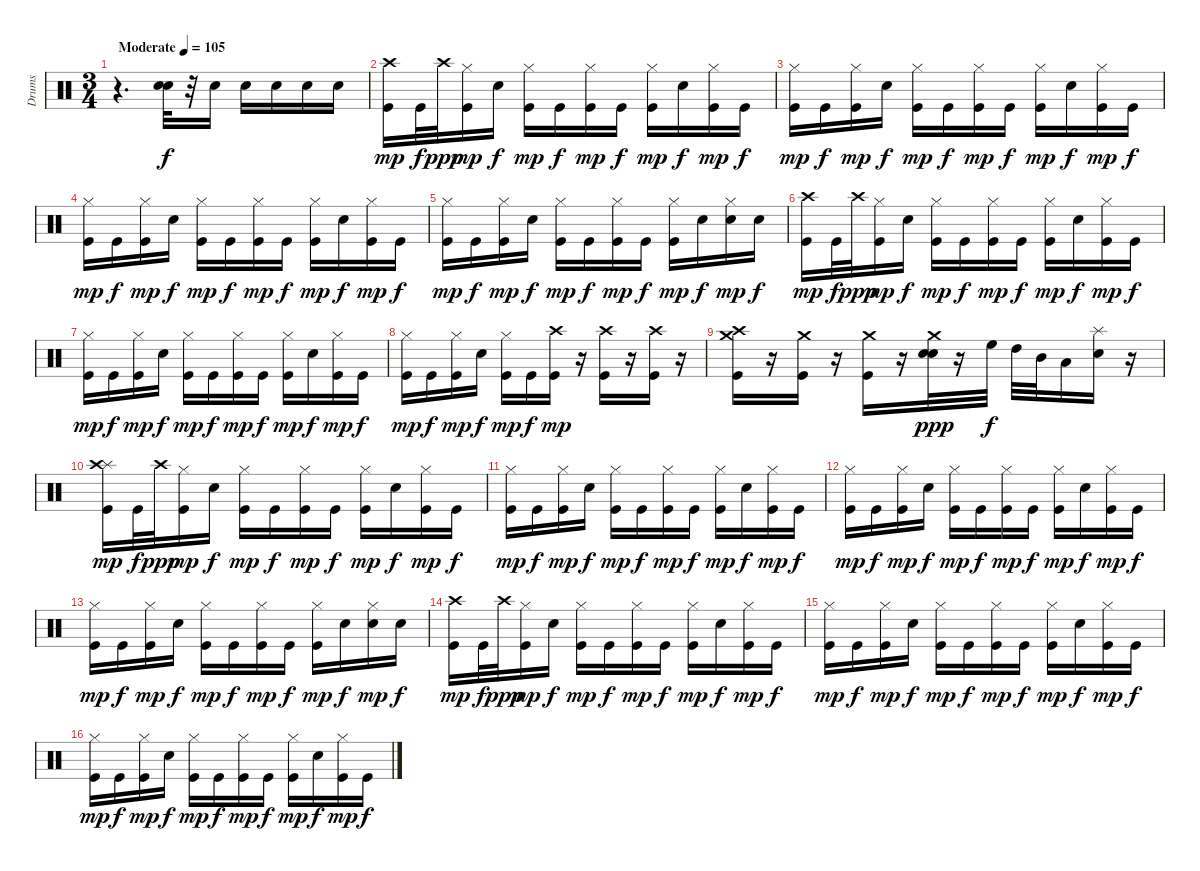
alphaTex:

\track ("Drums" "Drums") {instrument percussion}
\staff {score}
\articulation defaults
\ts (3 4)
\tempo (105 "Moderate")
\clef neutral
\ks c
r.4{d dy f} ("Snare (hit) 2" "Snare (hit) 2").32 r.32 "Snare (hit) 2".16 "Snare (hit) 2".16 "Snare (hit) 2".16 "Snare (hit) 2".16 "Snare (hit) 2".16 |
("Crash high (hit)" "Kick (hit)").16{dy mp} "Kick (hit)".32{dy f} "Crash high (hit)".32{dy ppp} ("Hi-Hat (closed)" "Kick (hit)").16{dy mp} "Snare (hit) 2".16{dy f} ("Hi-Hat (closed)" "Kick (hit)").16{dy mp} "Kick (hit)".16{dy f} ("Hi-Hat (closed)" "Kick (hit)").16{dy mp} "Kick (hit)".16{dy f} ("Hi-Hat (closed)" "Kick (hit)").16{dy mp} "Snare (hit) 2".16{dy f} ("Hi-Hat (closed)" "Kick (hit)").16{dy mp} "Kick (hit)".16{dy f} |
("Hi-Hat (closed)" "Kick (hit)").16{dy mp} "Kick (hit)".16{dy f} ("Hi-Hat (closed)" "Kick (hit)").16{dy mp} "Snare (hit) 2".16{dy f} ("Hi-Hat (closed)" "Kick (hit)").16{dy mp} "Kick (hit)".16{dy f} ("Hi-Hat (closed)" "Kick (hit)").16{dy mp} "Kick (hit)".16{dy f} ("Hi-Hat (closed)" "Kick (hit)").16{dy mp} "Snare (hit) 2".16{dy f} ("Hi-Hat (closed)" "Kick (hit)").16{dy mp} "Kick (hit)".16{dy f} |
("Hi-Hat (closed)" "Kick (hit)").16{dy mp} "Kick (hit)".16{dy f} ("Hi-Hat (closed)" "Kick (hit)").16{dy mp} "Snare (hit) 2".16{dy f} ("Hi-Hat (closed)" "Kick (hit)").16{dy mp} "Kick (hit)".16{dy f} ("Hi-Hat (closed)" "Kick (hit)").16{dy mp} "Kick (hit)".16{dy f} ("Hi-Hat (closed)" "Kick (hit)").16{dy mp} "Snare (hit) 2".16{dy f} ("Hi-Hat (closed)" "Kick (hit)").16{dy mp} "Kick (hit)".16{dy f} |
("Hi-Hat (closed)" "Kick (hit)").16{dy mp} "Kick (hit)".16{dy f} ("Hi-Hat (closed)" "Kick (hit)").16{dy mp} "Snare (hit) 2".16{dy f} ("Hi-Hat (closed)" "Kick (hit)").16{dy mp} "Kick (hit)".16{dy f} ("Hi-Hat (closed)" "Kick (hit)").16{dy mp} "Kick (hit)".16{dy f} ("Hi-Hat (closed)" "Kick (hit)").16{dy mp} "Snare (hit) 2".16{dy f} ("Hi-Hat (closed)" "Snare (hit) 2").16{dy mp} "Snare (hit) 2".16{dy f} |
("Crash high (hit)" "Kick (hit)").16{dy mp} "Kick (hit)".32{dy f} "Crash high (hit)".32{dy ppp} ("Hi-Hat (closed)" "Kick (hit)").16{dy mp} "Snare (hit) 2".16{dy f} ("Hi-Hat (closed)" "Kick (hit)").16{dy mp} "Kick (hit)".16{dy f} ("Hi-Hat (closed)" "Kick (hit)").16{dy mp} "Kick (hit)".16{dy f} ("Hi-Hat (closed)" "Kick (hit)").16{dy mp} "Snare (hit) 2".16{dy f} ("Hi-Hat (closed)" "Kick (hit)").16{dy mp} "Kick (hit)".16{dy f} |
("Hi-Hat (closed)" "Kick (hit)").16{dy mp} "Kick (hit)".16{dy f} ("Hi-Hat (closed)" "Kick (hit)").16{dy mp} "Snare (hit) 2".16{dy f} ("Hi-Hat (closed)" "Kick (hit)").16{dy mp} "Kick (hit)".16{dy f} ("Hi-Hat (closed)" "Kick (hit)").16{dy mp} "Kick (hit)".16{dy f} ("Hi-Hat (closed)" "Kick (hit)").16{dy mp} "Snare (hit) 2".16{dy f} ("Hi-Hat (closed)" "Kick (hit)").16{dy mp} "Kick (hit)".16{dy f} |
("Hi-Hat (closed)" "Kick (hit)").16{dy mp} "Kick (hit)".16{dy f} ("Hi-Hat (closed)" "Kick (hit)").16{dy mp} "Snare (hit) 2".16{dy f} ("Hi-Hat (closed)" "Kick (hit)").16{dy mp} "Kick (hit)".16{dy f} ("Crash high (hit)" "Kick (hit)").16{dy mp} r.16 ("Crash high (hit)" "Kick (hit)").16 r.16 ("Crash high (hit)" "Kick (hit)").16 r.16 |
("Crash high (hit)" "Kick (hit)" "Crash medium (hit)").16 r.16 ("Crash medium (hit)" "Kick (hit)").16 r.16 ("Crash medium (hit)" "Kick (hit)").16 r.16 ("Crash medium (hit)" "Snare (hit) 2" "Snare (hit) 2").32{dy ppp} r.16 "High Floor Tom (hit)".32{dy f} "High Tom (hit)".32 "Mid Tom (hit)".32 "Low Tom (hit)".16 ("Splash (hit)" "Snare (hit) 2").16 r.16 |
("Splash (hit)" "Crash high (hit)" "Kick (hit)").16{dy mp} "Kick (hit)".32{dy f} "Crash high (hit)".32{dy ppp} ("Hi-Hat (closed)" "Kick (hit)").16{dy mp} "Snare (hit) 2".16{dy f} ("Hi-Hat (closed)" "Kick (hit)").16{dy mp} "Kick (hit)".16{dy f} ("Hi-Hat (closed)" "Kick (hit)").16{dy mp} "Kick (hit)".16{dy f} ("Hi-Hat (closed)" "Kick (hit)").16{dy mp} "Snare (hit) 2".16{dy f} ("Hi-Hat (closed)" "Kick (hit)").16{dy mp} "Kick (hit)".16{dy f} |
("Hi-Hat (closed)" "Kick (hit)").16{dy mp} "Kick (hit)".16{dy f} ("Hi-Hat (closed)" "Kick (hit)").16{dy mp} "Snare (hit) 2".16{dy f} ("Hi-Hat (closed)" "Kick (hit)").16{dy mp} "Kick (hit)".16{dy f} ("Hi-Hat (closed)" "Kick (hit)").16{dy mp} "Kick (hit)".16{dy f} ("Hi-Hat (closed)" "Kick (hit)").16{dy mp} "Snare (hit) 2".16{dy f} ("Hi-Hat (closed)" "Kick (hit)").16{dy mp} "Kick (hit)".16{dy f} |
("Hi-Hat (closed)" "Kick (hit)").16{dy mp} "Kick (hit)".16{dy f} ("Hi-Hat (closed)" "Kick (hit)").16{dy mp} "Snare (hit) 2".16{dy f} ("Hi-Hat (closed)" "Kick (hit)").16{dy mp} "Kick (hit)".16{dy f} ("Hi-Hat (closed)" "Kick (hit)").16{dy mp} "Kick (hit)".16{dy f} ("Hi-Hat (closed)" "Kick (hit)").16{dy mp} "Snare (hit) 2".16{dy f} ("Hi-Hat (closed)" "Kick (hit)").16{dy mp} "Kick (hit)".16{dy f} |
("Hi-Hat (closed)" "Kick (hit)").16{dy mp} "Kick (hit)".16{dy f} ("Hi-Hat (closed)" "Kick (hit)").16{dy mp} "Snare (hit) 2".16{dy f} ("Hi-Hat (closed)" "Kick (hit)").16{dy mp} "Kick (hit)".16{dy f} ("Hi-Hat (closed)" "Kick (hit)").16{dy mp} "Kick (hit)".16{dy f} ("Hi-Hat (closed)" "Kick (hit)").16{dy mp} "Snare (hit) 2".16{dy f} ("Hi-Hat (closed)" "Snare (hit) 2").16{dy mp} "Snare (hit) 2".16{dy f} |
("Crash high (hit)" "Kick (hit)").16{dy mp} "Kick (hit)".32{dy f} "Crash high (hit)".32{dy ppp} ("Hi-Hat (closed)" "Kick (hit)").16{dy mp} "Snare (hit) 2".16{dy f} ("Hi-Hat (closed)" "Kick (hit)").16{dy mp} "Kick (hit)".16{dy f} ("Hi-Hat (closed)" "Kick (hit)").16{dy mp} "Kick (hit)".16{dy f} ("Hi-Hat (closed)" "Kick (hit)").16{dy mp} "Snare (hit) 2".16{dy f} ("Hi-Hat (closed)" "Kick (hit)").16{dy mp} "Kick (hit)".16{dy f} |
("Hi-Hat (closed)" "Kick (hit)").16{dy mp} "Kick (hit)".16{dy f} ("Hi-Hat (closed)" "Kick (hit)").16{dy mp} "Snare (hit) 2".16{dy f} ("Hi-Hat (closed)" "Kick (hit)").16{dy mp} "Kick (hit)".16{dy f} ("Hi-Hat (closed)" "Kick (hit)").16{dy mp} "Kick (hit)".16{dy f} ("Hi-Hat (closed)" "Kick (hit)").16{dy mp} "Snare (hit) 2".16{dy f} ("Hi-Hat (closed)" "Kick (hit)").16{dy mp} "Kick (hit)".16{dy f} |
("Hi-Hat (closed)" "Kick (hit)").16{dy mp} "Kick (hit)".16{dy f} ("Hi-Hat (closed)" "Kick (hit)").16{dy mp} "Snare (hit) 2".16{dy f} ("Hi-Hat (closed)" "Kick (hit)").16{dy mp} "Kick (hit)".16{dy f} ("Hi-Hat (closed)" "Kick (hit)").16{dy mp} "Kick (hit)".16{dy f} ("Hi-Hat (closed)" "Kick (hit)").16{dy mp} "Snare (hit) 2".16{dy f} ("Hi-Hat (closed)" "Kick (hit)").16{dy mp} "Kick (hit)".16{dy f}
